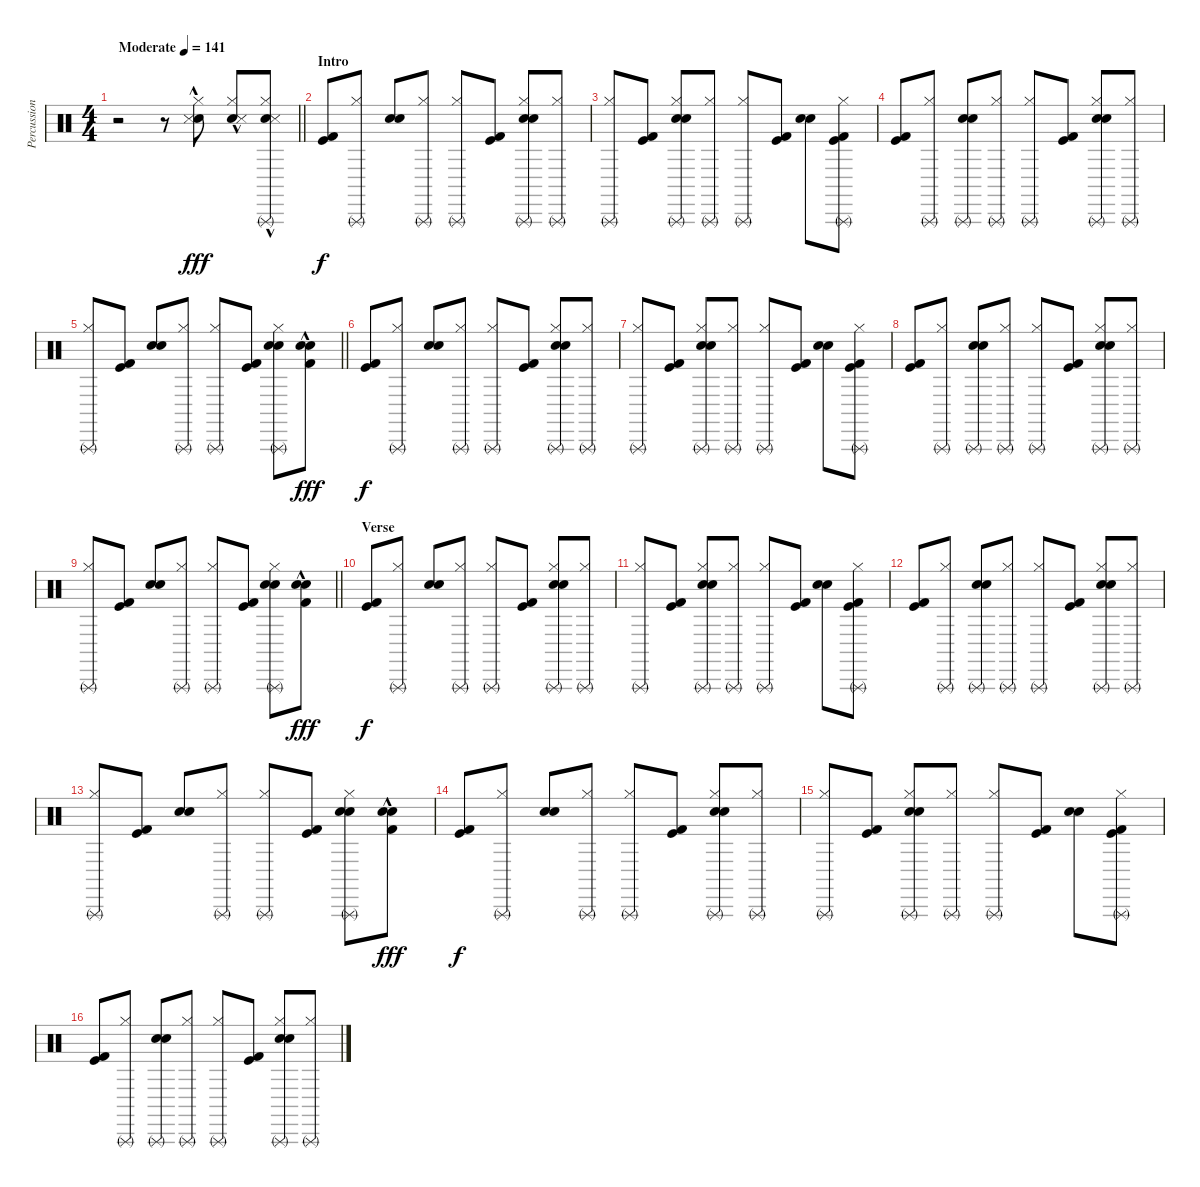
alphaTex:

\track ("Percussion" "Percussion") {instrument percussion}
\staff {score}
\articulation defaults
\ts (4 4)
\tempo (141 "Moderate")
\clef neutral
\barLineRight lightlight
\ks c
r.2{dy fff} r.8 ("Electric Snare (hit)"{hac} "Hi-Hat (closed)"{hac} "Metronome (hit)"{hac}).8 ("Electric Snare (hit)"{hac} "Hi-Hat (closed)"{hac} "Metronome (hit)"{hac}).8 ("Electric Snare (hit)"{hac} "Hi-Hat (closed)"{hac} "Metronome (hit)"{hac} "Triangle (rnute)"{hac}).8 |
\section ("" "Intro")
("Kick (hit)" "Kick (hit) 2").8{dy f} ("Hi-Hat (closed)" "Triangle (rnute)").8 ("Snare (hit) 2" "Electric Snare (hit)").8 ("Hi-Hat (closed)" "Triangle (rnute)").8 ("Hi-Hat (closed)" "Triangle (rnute)").8 ("Kick (hit)" "Kick (hit) 2").8 ("Snare (hit) 2" "Electric Snare (hit)" "Hi-Hat (closed)" "Triangle (rnute)").8 ("Hi-Hat (closed)" "Triangle (rnute)").8 |
("Hi-Hat (closed)" "Triangle (rnute)").8 ("Kick (hit)" "Kick (hit) 2").8 ("Snare (hit) 2" "Electric Snare (hit)" "Hi-Hat (closed)" "Triangle (rnute)").8 ("Hi-Hat (closed)" "Triangle (rnute)").8 ("Hi-Hat (closed)" "Triangle (rnute)").8 ("Kick (hit)" "Kick (hit) 2").8 ("Snare (hit) 2" "Electric Snare (hit)").8 ("Kick (hit)" "Kick (hit) 2" "Hi-Hat (closed)" "Triangle (rnute)").8 |
("Kick (hit)" "Kick (hit) 2").8 ("Hi-Hat (closed)" "Triangle (rnute)").8 ("Snare (hit) 2" "Electric Snare (hit)" "Triangle (rnute)").8 ("Hi-Hat (closed)" "Triangle (rnute)").8 ("Hi-Hat (closed)" "Triangle (rnute)").8 ("Kick (hit)" "Kick (hit) 2").8 ("Snare (hit) 2" "Electric Snare (hit)" "Hi-Hat (closed)" "Triangle (rnute)").8 ("Hi-Hat (closed)" "Triangle (rnute)").8 |
\barLineRight lightlight
("Hi-Hat (closed)" "Triangle (rnute)").8 ("Kick (hit)" "Kick (hit) 2").8 ("Snare (hit) 2" "Electric Snare (hit)").8 ("Hi-Hat (closed)" "Triangle (rnute)").8 ("Hi-Hat (closed)" "Triangle (rnute)").8 ("Kick (hit)" "Kick (hit) 2").8 ("Snare (hit) 2" "Electric Snare (hit)" "Hi-Hat (closed)" "Triangle (rnute)").8 ("Kick (hit) 2" "Snare (hit) 2" "Electric Snare (hit)"{hac}).8{dy fff} |
("Kick (hit)" "Kick (hit) 2").8{dy f} ("Hi-Hat (closed)" "Triangle (rnute)").8 ("Snare (hit) 2" "Electric Snare (hit)").8 ("Hi-Hat (closed)" "Triangle (rnute)").8 ("Hi-Hat (closed)" "Triangle (rnute)").8 ("Kick (hit)" "Kick (hit) 2").8 ("Snare (hit) 2" "Electric Snare (hit)" "Hi-Hat (closed)" "Triangle (rnute)").8 ("Hi-Hat (closed)" "Triangle (rnute)").8 |
("Hi-Hat (closed)" "Triangle (rnute)").8 ("Kick (hit)" "Kick (hit) 2").8 ("Snare (hit) 2" "Electric Snare (hit)" "Hi-Hat (closed)" "Triangle (rnute)").8 ("Hi-Hat (closed)" "Triangle (rnute)").8 ("Hi-Hat (closed)" "Triangle (rnute)").8 ("Kick (hit)" "Kick (hit) 2").8 ("Snare (hit) 2" "Electric Snare (hit)").8 ("Kick (hit)" "Kick (hit) 2" "Hi-Hat (closed)" "Triangle (rnute)").8 |
("Kick (hit)" "Kick (hit) 2").8 ("Hi-Hat (closed)" "Triangle (rnute)").8 ("Snare (hit) 2" "Electric Snare (hit)" "Triangle (rnute)").8 ("Hi-Hat (closed)" "Triangle (rnute)").8 ("Hi-Hat (closed)" "Triangle (rnute)").8 ("Kick (hit)" "Kick (hit) 2").8 ("Snare (hit) 2" "Electric Snare (hit)" "Hi-Hat (closed)" "Triangle (rnute)").8 ("Hi-Hat (closed)" "Triangle (rnute)").8 |
\barLineRight lightlight
("Hi-Hat (closed)" "Triangle (rnute)").8 ("Kick (hit)" "Kick (hit) 2").8 ("Snare (hit) 2" "Electric Snare (hit)").8 ("Hi-Hat (closed)" "Triangle (rnute)").8 ("Hi-Hat (closed)" "Triangle (rnute)").8 ("Kick (hit)" "Kick (hit) 2").8 ("Snare (hit) 2" "Electric Snare (hit)" "Hi-Hat (closed)" "Triangle (rnute)").8 ("Kick (hit) 2" "Snare (hit) 2" "Electric Snare (hit)"{hac}).8{dy fff} |
\section ("" "Verse ")
("Kick (hit)" "Kick (hit) 2").8{dy f} ("Hi-Hat (closed)" "Triangle (rnute)").8 ("Snare (hit) 2" "Electric Snare (hit)").8 ("Hi-Hat (closed)" "Triangle (rnute)").8 ("Hi-Hat (closed)" "Triangle (rnute)").8 ("Kick (hit)" "Kick (hit) 2").8 ("Snare (hit) 2" "Electric Snare (hit)" "Hi-Hat (closed)" "Triangle (rnute)").8 ("Hi-Hat (closed)" "Triangle (rnute)").8 |
("Hi-Hat (closed)" "Triangle (rnute)").8 ("Kick (hit)" "Kick (hit) 2").8 ("Snare (hit) 2" "Electric Snare (hit)" "Hi-Hat (closed)" "Triangle (rnute)").8 ("Hi-Hat (closed)" "Triangle (rnute)").8 ("Hi-Hat (closed)" "Triangle (rnute)").8 ("Kick (hit)" "Kick (hit) 2").8 ("Snare (hit) 2" "Electric Snare (hit)").8 ("Kick (hit)" "Kick (hit) 2" "Hi-Hat (closed)" "Triangle (rnute)").8 |
("Kick (hit)" "Kick (hit) 2").8 ("Hi-Hat (closed)" "Triangle (rnute)").8 ("Snare (hit) 2" "Electric Snare (hit)" "Triangle (rnute)").8 ("Hi-Hat (closed)" "Triangle (rnute)").8 ("Hi-Hat (closed)" "Triangle (rnute)").8 ("Kick (hit)" "Kick (hit) 2").8 ("Snare (hit) 2" "Electric Snare (hit)" "Hi-Hat (closed)" "Triangle (rnute)").8 ("Hi-Hat (closed)" "Triangle (rnute)").8 |
("Hi-Hat (closed)" "Triangle (rnute)").8 ("Kick (hit)" "Kick (hit) 2").8 ("Snare (hit) 2" "Electric Snare (hit)").8 ("Hi-Hat (closed)" "Triangle (rnute)").8 ("Hi-Hat (closed)" "Triangle (rnute)").8 ("Kick (hit)" "Kick (hit) 2").8 ("Snare (hit) 2" "Electric Snare (hit)" "Hi-Hat (closed)" "Triangle (rnute)").8 ("Kick (hit) 2" "Snare (hit) 2" "Electric Snare (hit)"{hac}).8{dy fff} |
("Kick (hit)" "Kick (hit) 2").8{dy f} ("Hi-Hat (closed)" "Triangle (rnute)").8 ("Snare (hit) 2" "Electric Snare (hit)").8 ("Hi-Hat (closed)" "Triangle (rnute)").8 ("Hi-Hat (closed)" "Triangle (rnute)").8 ("Kick (hit)" "Kick (hit) 2").8 ("Snare (hit) 2" "Electric Snare (hit)" "Hi-Hat (closed)" "Triangle (rnute)").8 ("Hi-Hat (closed)" "Triangle (rnute)").8 |
("Hi-Hat (closed)" "Triangle (rnute)").8 ("Kick (hit)" "Kick (hit) 2").8 ("Snare (hit) 2" "Electric Snare (hit)" "Hi-Hat (closed)" "Triangle (rnute)").8 ("Hi-Hat (closed)" "Triangle (rnute)").8 ("Hi-Hat (closed)" "Triangle (rnute)").8 ("Kick (hit)" "Kick (hit) 2").8 ("Snare (hit) 2" "Electric Snare (hit)").8 ("Kick (hit)" "Kick (hit) 2" "Hi-Hat (closed)" "Triangle (rnute)").8 |
("Kick (hit)" "Kick (hit) 2").8 ("Hi-Hat (closed)" "Triangle (rnute)").8 ("Snare (hit) 2" "Electric Snare (hit)" "Triangle (rnute)").8 ("Hi-Hat (closed)" "Triangle (rnute)").8 ("Hi-Hat (closed)" "Triangle (rnute)").8 ("Kick (hit)" "Kick (hit) 2").8 ("Snare (hit) 2" "Electric Snare (hit)" "Hi-Hat (closed)" "Triangle (rnute)").8 ("Hi-Hat (closed)" "Triangle (rnute)").8
